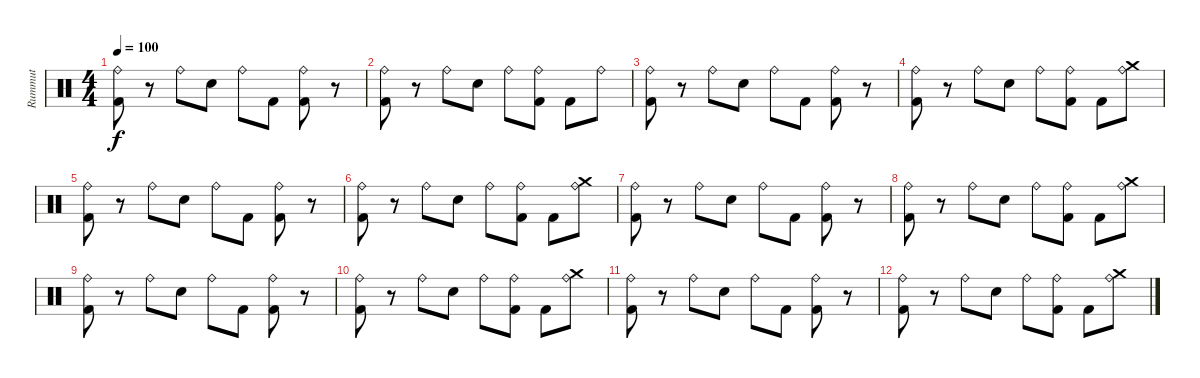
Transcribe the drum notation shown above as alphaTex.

\track ("Rummut" "Rummut") {instrument percussion}
\staff {score}
\articulation defaults
\ts (4 4)
\tempo 100
\clef neutral
\ks c
("Ride (bell)" "Kick (hit) 2").8{dy f} r.8 "Ride (bell)".8 "Snare (hit) 2".8 "Ride (bell)".8 "Kick (hit) 2".8 ("Ride (bell)" "Kick (hit) 2").8 r.8 |
("Ride (bell)" "Kick (hit) 2").8 r.8 "Ride (bell)".8 "Snare (hit) 2".8 "Ride (bell)".8 ("Ride (bell)" "Kick (hit) 2").8 "Kick (hit) 2".8 "Ride (bell)".8 |
("Ride (bell)" "Kick (hit) 2").8 r.8 "Ride (bell)".8 "Snare (hit) 2".8 "Ride (bell)".8 "Kick (hit) 2".8 ("Ride (bell)" "Kick (hit) 2").8 r.8 |
("Ride (bell)" "Kick (hit) 2").8 r.8 "Ride (bell)".8 "Snare (hit) 2".8 "Ride (bell)".8 ("Ride (bell)" "Kick (hit) 2").8 "Kick (hit) 2".8 ("Ride (bell)" "Crash medium (hit)").8 |
("Ride (bell)" "Kick (hit) 2").8 r.8 "Ride (bell)".8 "Snare (hit) 2".8 "Ride (bell)".8 "Kick (hit) 2".8 ("Ride (bell)" "Kick (hit) 2").8 r.8 |
("Ride (bell)" "Kick (hit) 2").8 r.8 "Ride (bell)".8 "Snare (hit) 2".8 "Ride (bell)".8 ("Ride (bell)" "Kick (hit) 2").8 "Kick (hit) 2".8 ("Ride (bell)" "Crash medium (hit)").8 |
("Ride (bell)" "Kick (hit) 2").8 r.8 "Ride (bell)".8 "Snare (hit) 2".8 "Ride (bell)".8 "Kick (hit) 2".8 ("Ride (bell)" "Kick (hit) 2").8 r.8 |
("Ride (bell)" "Kick (hit) 2").8 r.8 "Ride (bell)".8 "Snare (hit) 2".8 "Ride (bell)".8 ("Ride (bell)" "Kick (hit) 2").8 "Kick (hit) 2".8 ("Ride (bell)" "Crash medium (hit)").8 |
("Ride (bell)" "Kick (hit) 2").8 r.8 "Ride (bell)".8 "Snare (hit) 2".8 "Ride (bell)".8 "Kick (hit) 2".8 ("Ride (bell)" "Kick (hit) 2").8 r.8 |
("Ride (bell)" "Kick (hit) 2").8 r.8 "Ride (bell)".8 "Snare (hit) 2".8 "Ride (bell)".8 ("Ride (bell)" "Kick (hit) 2").8 "Kick (hit) 2".8 ("Ride (bell)" "Crash medium (hit)").8 |
("Ride (bell)" "Kick (hit) 2").8 r.8 "Ride (bell)".8 "Snare (hit) 2".8 "Ride (bell)".8 "Kick (hit) 2".8 ("Ride (bell)" "Kick (hit) 2").8 r.8 |
("Ride (bell)" "Kick (hit) 2").8 r.8 "Ride (bell)".8 "Snare (hit) 2".8 "Ride (bell)".8 ("Ride (bell)" "Kick (hit) 2").8 "Kick (hit) 2".8 ("Ride (bell)" "Crash medium (hit)").8
